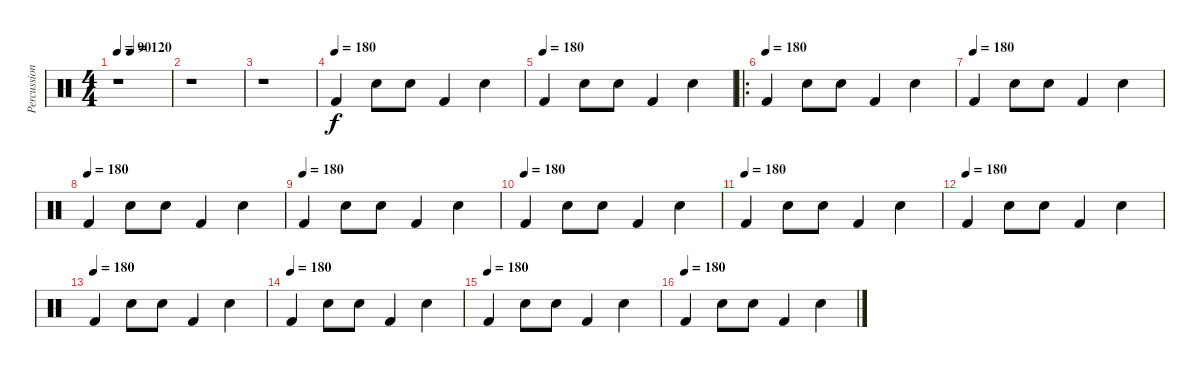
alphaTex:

\track ("Percussions" "Percussion") {instrument percussion}
\staff {score}
\articulation defaults
\ts (4 4)
\tempo 90
\tempo (120 0.25)
\clef neutral
\ks c
r.1{dy f} |
r.1 |
r.1 |
\tempo (180)
"Kick (hit) 2".4 "Hand Clap (hit)".8 "Hand Clap (hit)".8 "Kick (hit) 2".4 "Hand Clap (hit)".4 |
\tempo (180)
"Kick (hit) 2".4 "Hand Clap (hit)".8 "Hand Clap (hit)".8 "Kick (hit) 2".4 "Hand Clap (hit)".4 |
\ro
\tempo (180)
"Kick (hit) 2".4 "Hand Clap (hit)".8 "Hand Clap (hit)".8 "Kick (hit) 2".4 "Hand Clap (hit)".4 |
\tempo (180)
"Kick (hit) 2".4 "Hand Clap (hit)".8 "Hand Clap (hit)".8 "Kick (hit) 2".4 "Hand Clap (hit)".4 |
\tempo (180)
"Kick (hit) 2".4 "Hand Clap (hit)".8 "Hand Clap (hit)".8 "Kick (hit) 2".4 "Hand Clap (hit)".4 |
\tempo (180)
"Kick (hit) 2".4 "Hand Clap (hit)".8 "Hand Clap (hit)".8 "Kick (hit) 2".4 "Hand Clap (hit)".4 |
\tempo (180)
"Kick (hit) 2".4 "Hand Clap (hit)".8 "Hand Clap (hit)".8 "Kick (hit) 2".4 "Hand Clap (hit)".4 |
\tempo (180)
"Kick (hit) 2".4 "Hand Clap (hit)".8 "Hand Clap (hit)".8 "Kick (hit) 2".4 "Hand Clap (hit)".4 |
\tempo (180)
"Kick (hit) 2".4 "Hand Clap (hit)".8 "Hand Clap (hit)".8 "Kick (hit) 2".4 "Hand Clap (hit)".4 |
\tempo (180)
"Kick (hit) 2".4 "Hand Clap (hit)".8 "Hand Clap (hit)".8 "Kick (hit) 2".4 "Hand Clap (hit)".4 |
\tempo (180)
"Kick (hit) 2".4 "Hand Clap (hit)".8 "Hand Clap (hit)".8 "Kick (hit) 2".4 "Hand Clap (hit)".4 |
\tempo (180)
"Kick (hit) 2".4 "Hand Clap (hit)".8 "Hand Clap (hit)".8 "Kick (hit) 2".4 "Hand Clap (hit)".4 |
\tempo (180)
"Kick (hit) 2".4 "Hand Clap (hit)".8 "Hand Clap (hit)".8 "Kick (hit) 2".4 "Hand Clap (hit)".4
